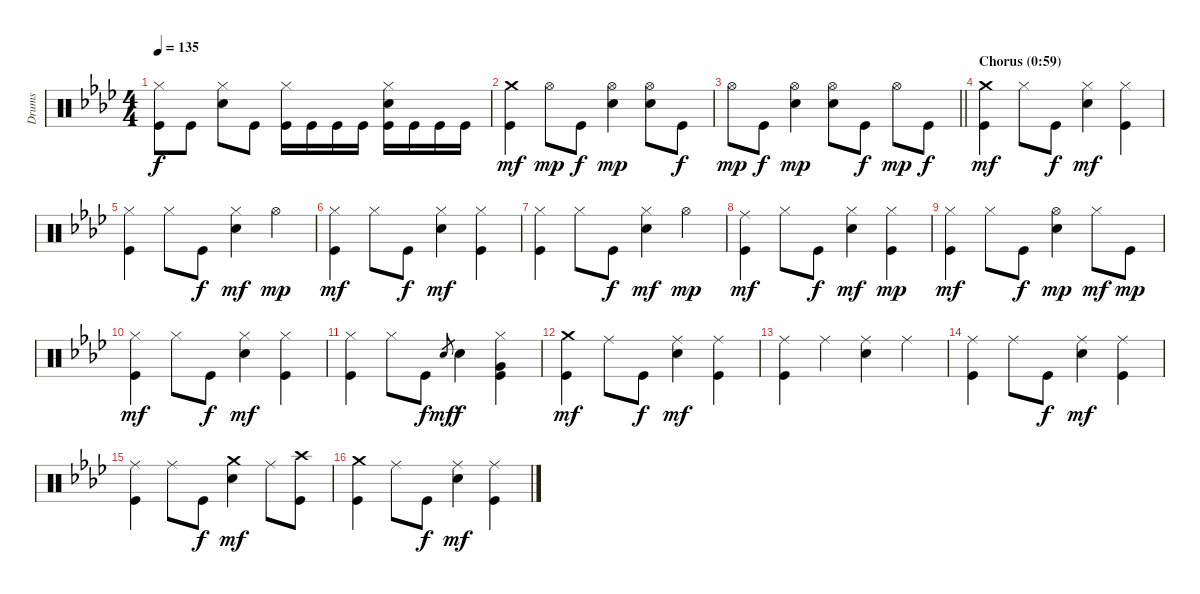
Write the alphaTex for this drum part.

\track ("Drums" "Drums") {instrument percussion}
\staff {score}
\articulation defaults
\ts (4 4)
\tempo 135
\clef neutral
\ks fminor
("Hi-Hat (closed)" "Kick (hit)").8{dy f} "Kick (hit)".8 ("Hi-Hat (closed)" "Snare (hit) 2").8 "Kick (hit)".8 ("Hi-Hat (closed)" "Kick (hit)").16 "Kick (hit)".16 "Kick (hit)".16 "Kick (hit)".16 ("Hi-Hat (closed)" "Snare (hit) 2" "Kick (hit)").16 "Kick (hit)".16 "Kick (hit)".16 "Kick (hit)".16 |
("Crash medium (hit)" "Kick (hit)").4{dy mf} "Hi-Hat (open)".8{dy mp} "Kick (hit)".8{dy f} ("Hi-Hat (open)" "Snare (hit) 2").4{dy mp} ("Hi-Hat (open)" "Snare (hit) 2").8 "Kick (hit)".8{dy f} |
\barLineRight lightlight "Hi-Hat (open)".8{dy mp} "Kick (hit)".8{dy f}
("Hi-Hat (open)" "Snare (hit) 2").4{dy mp} ("Hi-Hat (open)" "Snare (hit) 2").8 "Kick (hit)".8{dy f} "Hi-Hat (open)".8{dy mp} "Kick (hit)".8{dy f} |
\section ("" "Chorus (0:59)")
("Crash medium (hit)" "Kick (hit)").4{dy mf} "Hi-Hat (closed)".8 "Kick (hit)".8{dy f} ("Hi-Hat (closed)" "Snare (hit) 2").4{dy mf} ("Hi-Hat (closed)" "Kick (hit)").4 |
("Hi-Hat (closed)" "Kick (hit)").4 "Hi-Hat (closed)".8 "Kick (hit)".8{dy f} ("Hi-Hat (closed)" "Snare (hit) 2").4{dy mf} "Hi-Hat (open)".4{dy mp} |
("Hi-Hat (closed)" "Kick (hit)").4{dy mf} "Hi-Hat (closed)".8 "Kick (hit)".8{dy f} ("Hi-Hat (closed)" "Snare (hit) 2").4{dy mf} ("Hi-Hat (closed)" "Kick (hit)").4 |
("Hi-Hat (closed)" "Kick (hit)").4 "Hi-Hat (closed)".8 "Kick (hit)".8{dy f} ("Hi-Hat (closed)" "Snare (hit) 2").4{dy mf} "Hi-Hat (open)".4{dy mp} |
("Ride (middle)" "Kick (hit)").4{dy mf} "Hi-Hat (closed)".8 "Kick (hit)".8{dy f} ("Hi-Hat (closed)" "Snare (hit) 2").4{dy mf} ("Hi-Hat (closed)" "Kick (hit)").4{dy mp} |
("Hi-Hat (closed)" "Kick (hit)").4{dy mf} "Hi-Hat (closed)".8 "Kick (hit)".8{dy f} ("Hi-Hat (open)" "Snare (hit) 2").4{dy mp} "Hi-Hat (closed)".8{dy mf} "Kick (hit)".8{dy mp} |
("Hi-Hat (closed)" "Kick (hit)").4{dy mf} "Hi-Hat (closed)".8 "Kick (hit)".8{dy f} ("Hi-Hat (closed)" "Snare (hit) 2").4{dy mf} ("Hi-Hat (closed)" "Kick (hit)").4 |
("Hi-Hat (closed)" "Kick (hit)").4 "Hi-Hat (closed)".8 "Kick (hit)".8{dy f} "Snare (hit) 2".8{gr dy mf} "Snare (hit) 2".4{dy f} ("Hi-Hat (closed)" "Very Low Tom (hit)" "Kick (hit)").4 |
("Crash medium (hit)" "Kick (hit)").4{dy mf} "Ride (middle)".8 "Kick (hit)".8{dy f} ("Ride (middle)" "Snare (hit) 2").4{dy mf} ("Ride (middle)" "Kick (hit)").4 |
("Ride (middle)" "Kick (hit)").4 "Ride (middle)".4 ("Ride (middle)" "Snare (hit) 2").4 "Ride (middle)".4 |
("Ride (middle)" "Kick (hit)").4 "Ride (middle)".8 "Kick (hit)".8{dy f} ("Ride (middle)" "Snare (hit) 2").4{dy mf} ("Ride (middle)" "Kick (hit)").4 |
("Ride (middle)" "Kick (hit)").4 "Ride (middle)".8 "Kick (hit)".8{dy f} ("Crash medium (hit)" "Snare (hit) 2").4{dy mf} "Ride (middle)".8 ("Crash high (hit)" "Kick (hit)").8 |
("Crash medium (hit)" "Kick (hit)").4 "Ride (middle)".8 "Kick (hit)".8{dy f} ("Ride (middle)" "Snare (hit) 2").4{dy mf} ("Ride (middle)" "Kick (hit)").4
